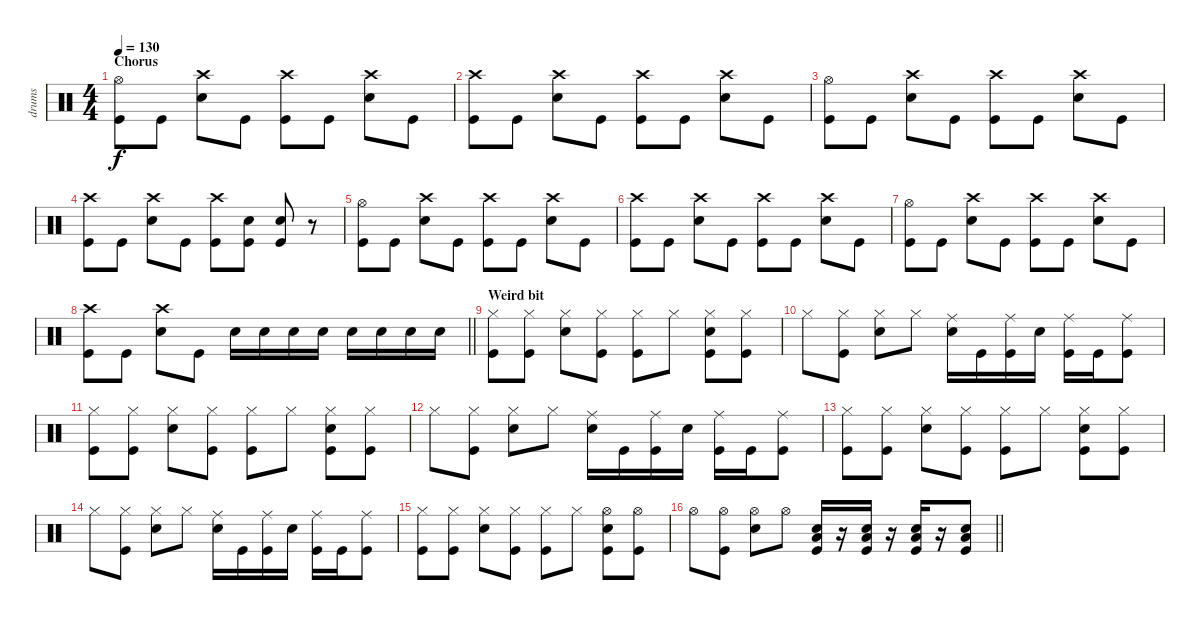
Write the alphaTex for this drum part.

\track ("drums" "drums") {instrument percussion}
\staff {score}
\articulation defaults
\ts (4 4)
\section ("" "Chorus")
\tempo 130
\clef neutral
\ks c
("Hi-Hat (open)" "Kick (hit)").8{dy f} "Kick (hit)".8 ("Crash high (hit)" "Snare (hit) 2").8 "Kick (hit)".8 ("Crash high (hit)" "Kick (hit)").8 "Kick (hit)".8 ("Crash high (hit)" "Snare (hit) 2").8 "Kick (hit)".8 |
("Crash high (hit)" "Kick (hit)").8 "Kick (hit)".8 ("Crash high (hit)" "Snare (hit) 2").8 "Kick (hit)".8 ("Crash high (hit)" "Kick (hit)").8 "Kick (hit)".8 ("Crash high (hit)" "Snare (hit) 2").8 "Kick (hit)".8 |
("Hi-Hat (open)" "Kick (hit)").8 "Kick (hit)".8 ("Crash high (hit)" "Snare (hit) 2").8 "Kick (hit)".8 ("Crash high (hit)" "Kick (hit)").8 "Kick (hit)".8 ("Crash high (hit)" "Snare (hit) 2").8 "Kick (hit)".8 |
("Crash high (hit)" "Kick (hit)").8 "Kick (hit)".8 ("Crash high (hit)" "Snare (hit) 2").8 "Kick (hit)".8 ("Crash high (hit)" "Kick (hit)").8 ("Snare (hit) 2" "Kick (hit)").8 ("Snare (hit) 2" "Kick (hit)").8 r.8 |
("Hi-Hat (open)" "Kick (hit)").8 "Kick (hit)".8 ("Crash high (hit)" "Snare (hit) 2").8 "Kick (hit)".8 ("Crash high (hit)" "Kick (hit)").8 "Kick (hit)".8 ("Crash high (hit)" "Snare (hit) 2").8 "Kick (hit)".8 |
("Crash high (hit)" "Kick (hit)").8 "Kick (hit)".8 ("Crash high (hit)" "Snare (hit) 2").8 "Kick (hit)".8 ("Crash high (hit)" "Kick (hit)").8 "Kick (hit)".8 ("Crash high (hit)" "Snare (hit) 2").8 "Kick (hit)".8 |
("Hi-Hat (open)" "Kick (hit)").8 "Kick (hit)".8 ("Crash high (hit)" "Snare (hit) 2").8 "Kick (hit)".8 ("Crash high (hit)" "Kick (hit)").8 "Kick (hit)".8 ("Crash high (hit)" "Snare (hit) 2").8 "Kick (hit)".8 |
\barLineRight lightlight
("Crash high (hit)" "Kick (hit)").8 "Kick (hit)".8 ("Crash high (hit)" "Snare (hit) 2").8 "Kick (hit)".8 "Snare (hit) 2".16 "Snare (hit) 2".16 "Snare (hit) 2".16 "Snare (hit) 2".16 "Snare (hit) 2".16 "Snare (hit) 2".16 "Snare (hit) 2".16 "Snare (hit) 2".16 |
\section ("" "Weird bit")
("Hi-Hat (closed)" "Kick (hit)").8 ("Hi-Hat (closed)" "Kick (hit)").8 ("Hi-Hat (closed)" "Snare (hit) 2").8 ("Hi-Hat (closed)" "Kick (hit)").8 ("Hi-Hat (closed)" "Kick (hit)").8 "Hi-Hat (closed)".8 ("Hi-Hat (closed)" "Snare (hit) 2" "Kick (hit)").8 ("Hi-Hat (closed)" "Kick (hit)").8 |
"Hi-Hat (closed)".8 ("Hi-Hat (closed)" "Kick (hit)").8 ("Hi-Hat (closed)" "Snare (hit) 2").8 "Hi-Hat (closed)".8 ("Snare (hit) 2" "Ride (middle)").16 "Kick (hit)".16 ("Kick (hit)" "Ride (middle)").16 "Snare (hit) 2".16 ("Kick (hit)" "Ride (middle)").16 "Kick (hit)".16 ("Kick (hit)" "Ride (middle)").8 |
("Hi-Hat (closed)" "Kick (hit)").8 ("Hi-Hat (closed)" "Kick (hit)").8 ("Hi-Hat (closed)" "Snare (hit) 2").8 ("Hi-Hat (closed)" "Kick (hit)").8 ("Hi-Hat (closed)" "Kick (hit)").8 "Hi-Hat (closed)".8 ("Hi-Hat (closed)" "Snare (hit) 2" "Kick (hit)").8 ("Hi-Hat (closed)" "Kick (hit)").8 |
"Hi-Hat (closed)".8 ("Hi-Hat (closed)" "Kick (hit)").8 ("Hi-Hat (closed)" "Snare (hit) 2").8 "Hi-Hat (closed)".8 ("Snare (hit) 2" "Ride (middle)").16 "Kick (hit)".16 ("Kick (hit)" "Ride (middle)").16 "Snare (hit) 2".16 ("Kick (hit)" "Ride (middle)").16 "Kick (hit)".16 ("Kick (hit)" "Ride (middle)").8 |
("Hi-Hat (closed)" "Kick (hit)").8 ("Hi-Hat (closed)" "Kick (hit)").8 ("Hi-Hat (closed)" "Snare (hit) 2").8 ("Hi-Hat (closed)" "Kick (hit)").8 ("Hi-Hat (closed)" "Kick (hit)").8 "Hi-Hat (closed)".8 ("Hi-Hat (closed)" "Snare (hit) 2" "Kick (hit)").8 ("Hi-Hat (closed)" "Kick (hit)").8 |
"Hi-Hat (closed)".8 ("Hi-Hat (closed)" "Kick (hit)").8 ("Hi-Hat (closed)" "Snare (hit) 2").8 "Hi-Hat (closed)".8 ("Snare (hit) 2" "Ride (middle)").16 "Kick (hit)".16 ("Kick (hit)" "Ride (middle)").16 "Snare (hit) 2".16 ("Kick (hit)" "Ride (middle)").16 "Kick (hit)".16 ("Kick (hit)" "Ride (middle)").8 |
("Hi-Hat (closed)" "Kick (hit)").8 ("Hi-Hat (closed)" "Kick (hit)").8 ("Hi-Hat (closed)" "Snare (hit) 2").8 ("Hi-Hat (closed)" "Kick (hit)").8 ("Hi-Hat (closed)" "Kick (hit)").8 "Hi-Hat (closed)".8 ("Hi-Hat (open)" "Snare (hit) 2" "Kick (hit)").8 ("Hi-Hat (open)" "Kick (hit)").8 |
\barLineRight lightlight "Hi-Hat (open)".8
("Hi-Hat (open)" "Kick (hit)").8 ("Hi-Hat (open)" "Snare (hit) 2").8 "Hi-Hat (open)".8 ("Snare (hit) 2" "Low Tom (hit)" "Kick (hit)").16 r.16 ("Snare (hit) 2" "Low Tom (hit)" "Kick (hit)").16 r.16 ("Snare (hit) 2" "Low Tom (hit)" "Kick (hit)").16 r.16 ("Snare (hit) 2" "Low Tom (hit)" "Kick (hit)").8
